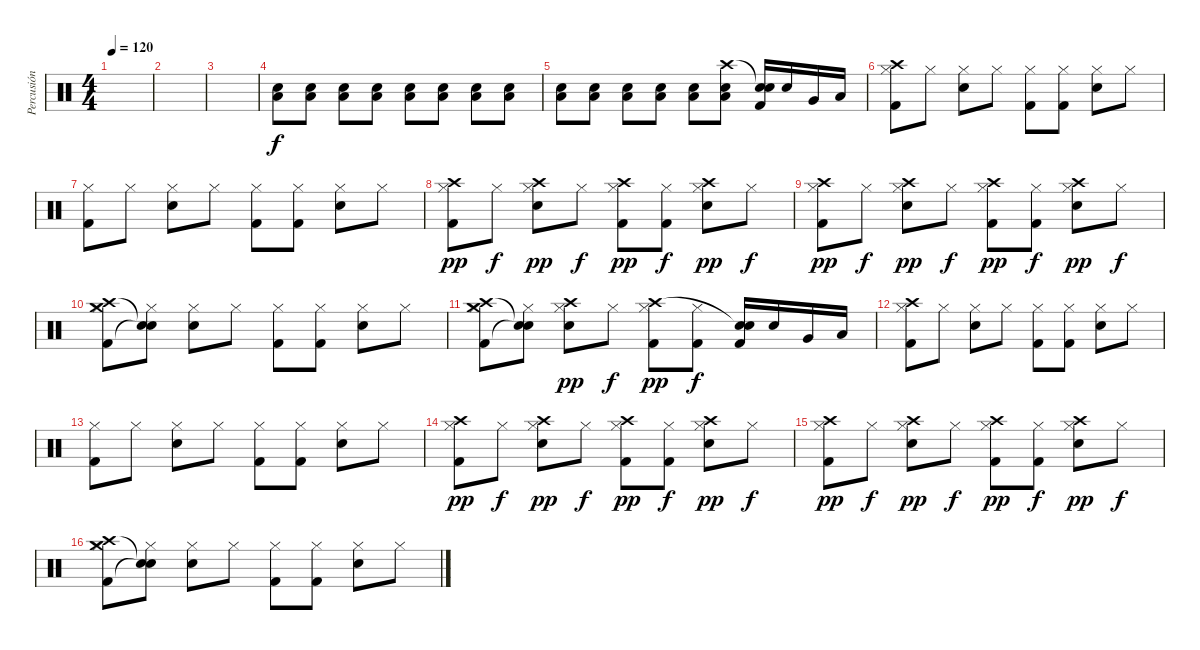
\track ("Percusión" "Percusión") {instrument percussion}
\staff {score}
\articulation defaults
\ts (4 4)
\tempo 120
\clef neutral
\ks c
|
|
|
("Low Floor Tom (hit)" "Electric Snare (hit)").8 ("Low Floor Tom (hit)" "Electric Snare (hit)").8 ("Low Floor Tom (hit)" "Electric Snare (hit)").8 ("Low Floor Tom (hit)" "Electric Snare (hit)").8 ("Low Floor Tom (hit)" "Electric Snare (hit)").8 ("Low Floor Tom (hit)" "Electric Snare (hit)").8 ("Low Floor Tom (hit)" "Electric Snare (hit)").8 ("Low Floor Tom (hit)" "Electric Snare (hit)").8 |
("Low Floor Tom (hit)" "Electric Snare (hit)").8 ("Low Floor Tom (hit)" "Electric Snare (hit)").8 ("Low Floor Tom (hit)" "Electric Snare (hit)").8 ("Low Floor Tom (hit)" "Electric Snare (hit)").8 ("Low Floor Tom (hit)" "Electric Snare (hit)").8 ("Low Floor Tom (hit)" "Electric Snare (hit)" "Crash high (hit)").8 ("Electric Snare (hit)" "Kick (hit) 2" "Snare (hit)"{t}).16 "Electric Snare (hit)".16 "Very Low Tom (hit)".16 "Low Floor Tom (hit)".16 |
("Hi-Hat (closed)" "Kick (hit) 2" "Crash high (hit)").8 "Hi-Hat (closed)".8 ("Hi-Hat (closed)" "Electric Snare (hit)").8 "Hi-Hat (closed)".8 ("Hi-Hat (closed)" "Kick (hit) 2").8 ("Hi-Hat (closed)" "Kick (hit) 2").8 ("Hi-Hat (closed)" "Electric Snare (hit)").8 "Hi-Hat (closed)".8 |
("Hi-Hat (closed)" "Kick (hit) 2").8 "Hi-Hat (closed)".8 ("Hi-Hat (closed)" "Electric Snare (hit)").8 "Hi-Hat (closed)".8 ("Hi-Hat (closed)" "Kick (hit) 2").8 ("Hi-Hat (closed)" "Kick (hit) 2").8 ("Hi-Hat (closed)" "Electric Snare (hit)").8 "Hi-Hat (closed)".8 |
("Hi-Hat (closed)" "Kick (hit) 2" "Crash high (hit)").8{dy pp} "Hi-Hat (closed)".8{dy f} ("Hi-Hat (closed)" "Electric Snare (hit)" "Crash high (hit)").8{dy pp} "Hi-Hat (closed)".8{dy f} ("Hi-Hat (closed)" "Kick (hit) 2" "Crash high (hit)").8{dy pp} ("Hi-Hat (closed)" "Kick (hit) 2").8{dy f} ("Hi-Hat (closed)" "Electric Snare (hit)" "Crash high (hit)").8{dy pp} "Hi-Hat (closed)".8{dy f} |
("Hi-Hat (closed)" "Kick (hit) 2" "Crash high (hit)").8{dy pp} "Hi-Hat (closed)".8{dy f} ("Hi-Hat (closed)" "Electric Snare (hit)" "Crash high (hit)").8{dy pp} "Hi-Hat (closed)".8{dy f} ("Hi-Hat (closed)" "Kick (hit) 2" "Crash high (hit)").8{dy pp} ("Hi-Hat (closed)" "Kick (hit) 2").8{dy f} ("Hi-Hat (closed)" "Electric Snare (hit)" "Crash high (hit)").8{dy pp} "Hi-Hat (closed)".8{dy f} |
("Hi-Hat (closed)" "Kick (hit) 2" "Crash high (hit)" "Crash medium (hit)").8 ("Hi-Hat (closed)" "Snare (hit)"{t} "Snare (hit)"{t}).8 ("Hi-Hat (closed)" "Electric Snare (hit)").8 "Hi-Hat (closed)".8 ("Hi-Hat (closed)" "Kick (hit) 2").8 ("Hi-Hat (closed)" "Kick (hit) 2").8 ("Hi-Hat (closed)" "Electric Snare (hit)").8 "Hi-Hat (closed)".8 |
("Hi-Hat (closed)" "Kick (hit) 2" "Crash high (hit)" "Crash medium (hit)").8 ("Hi-Hat (closed)" "Snare (hit)"{t} "Snare (hit)"{t}).8 ("Hi-Hat (closed)" "Electric Snare (hit)" "Crash high (hit)").8{dy pp} "Hi-Hat (closed)".8{dy f} ("Hi-Hat (closed)" "Kick (hit) 2" "Crash high (hit)").8{dy pp} ("Hi-Hat (closed)" "Kick (hit) 2").8{dy f} ("Electric Snare (hit)" "Kick (hit) 2" "Snare (hit)"{t}).16 "Electric Snare (hit)".16 "Very Low Tom (hit)".16 "Low Floor Tom (hit)".16 |
("Hi-Hat (closed)" "Kick (hit) 2" "Crash high (hit)").8 "Hi-Hat (closed)".8 ("Hi-Hat (closed)" "Electric Snare (hit)").8 "Hi-Hat (closed)".8 ("Hi-Hat (closed)" "Kick (hit) 2").8 ("Hi-Hat (closed)" "Kick (hit) 2").8 ("Hi-Hat (closed)" "Electric Snare (hit)").8 "Hi-Hat (closed)".8 |
("Hi-Hat (closed)" "Kick (hit) 2").8 "Hi-Hat (closed)".8 ("Hi-Hat (closed)" "Electric Snare (hit)").8 "Hi-Hat (closed)".8 ("Hi-Hat (closed)" "Kick (hit) 2").8 ("Hi-Hat (closed)" "Kick (hit) 2").8 ("Hi-Hat (closed)" "Electric Snare (hit)").8 "Hi-Hat (closed)".8 |
("Hi-Hat (closed)" "Kick (hit) 2" "Crash high (hit)").8{dy pp} "Hi-Hat (closed)".8{dy f} ("Hi-Hat (closed)" "Electric Snare (hit)" "Crash high (hit)").8{dy pp} "Hi-Hat (closed)".8{dy f} ("Hi-Hat (closed)" "Kick (hit) 2" "Crash high (hit)").8{dy pp} ("Hi-Hat (closed)" "Kick (hit) 2").8{dy f} ("Hi-Hat (closed)" "Electric Snare (hit)" "Crash high (hit)").8{dy pp} "Hi-Hat (closed)".8{dy f} |
("Hi-Hat (closed)" "Kick (hit) 2" "Crash high (hit)").8{dy pp} "Hi-Hat (closed)".8{dy f} ("Hi-Hat (closed)" "Electric Snare (hit)" "Crash high (hit)").8{dy pp} "Hi-Hat (closed)".8{dy f} ("Hi-Hat (closed)" "Kick (hit) 2" "Crash high (hit)").8{dy pp} ("Hi-Hat (closed)" "Kick (hit) 2").8{dy f} ("Hi-Hat (closed)" "Electric Snare (hit)" "Crash high (hit)").8{dy pp} "Hi-Hat (closed)".8{dy f} |
("Hi-Hat (closed)" "Kick (hit) 2" "Crash high (hit)" "Crash medium (hit)").8 ("Hi-Hat (closed)" "Snare (hit)"{t} "Snare (hit)"{t}).8 ("Hi-Hat (closed)" "Electric Snare (hit)").8 "Hi-Hat (closed)".8 ("Hi-Hat (closed)" "Kick (hit) 2").8 ("Hi-Hat (closed)" "Kick (hit) 2").8 ("Hi-Hat (closed)" "Electric Snare (hit)").8 "Hi-Hat (closed)".8
